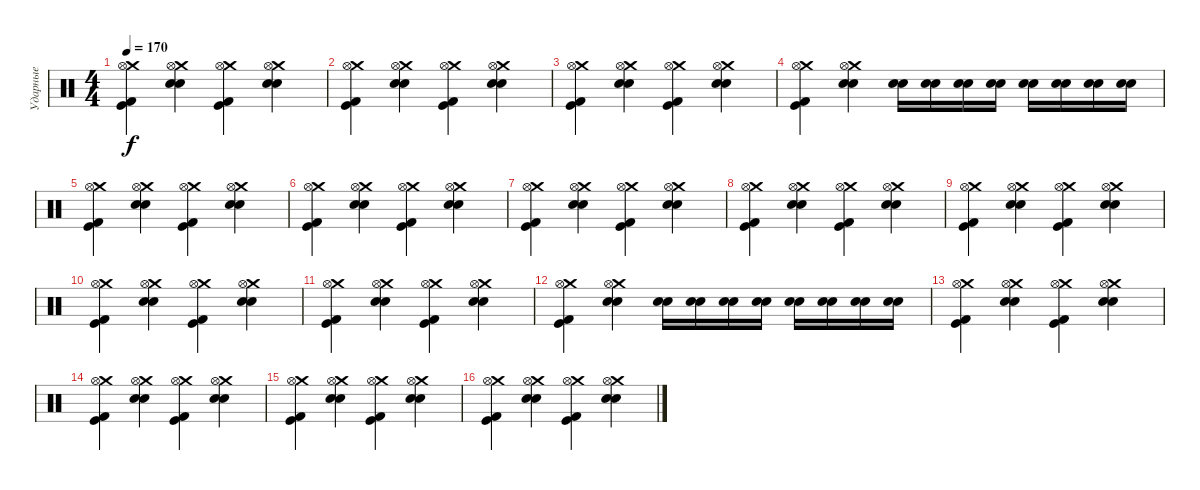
\track ("Ударные" "Ударные") {instrument percussion}
\staff {score}
\articulation defaults
\ts (4 4)
\tempo 170
\clef neutral
\ks c
("Crash medium (hit)" "Hi-Hat (open)" "Kick (hit)" "Kick (hit) 2").4{dy f} ("Crash medium (hit)" "Hi-Hat (open)" "Electric Snare (hit)" "Snare (hit) 2").4 ("Crash medium (hit)" "Hi-Hat (open)" "Kick (hit)" "Kick (hit) 2").4 ("Crash medium (hit)" "Hi-Hat (open)" "Electric Snare (hit)" "Snare (hit) 2").4 |
("Crash medium (hit)" "Hi-Hat (open)" "Kick (hit)" "Kick (hit) 2").4 ("Crash medium (hit)" "Hi-Hat (open)" "Electric Snare (hit)" "Snare (hit) 2").4 ("Crash medium (hit)" "Hi-Hat (open)" "Kick (hit)" "Kick (hit) 2").4 ("Crash medium (hit)" "Hi-Hat (open)" "Electric Snare (hit)" "Snare (hit) 2").4 |
("Crash medium (hit)" "Hi-Hat (open)" "Kick (hit)" "Kick (hit) 2").4 ("Crash medium (hit)" "Hi-Hat (open)" "Electric Snare (hit)" "Snare (hit) 2").4 ("Crash medium (hit)" "Hi-Hat (open)" "Kick (hit)" "Kick (hit) 2").4 ("Crash medium (hit)" "Hi-Hat (open)" "Electric Snare (hit)" "Snare (hit) 2").4 |
("Crash medium (hit)" "Hi-Hat (open)" "Kick (hit)" "Kick (hit) 2").4 ("Crash medium (hit)" "Hi-Hat (open)" "Electric Snare (hit)" "Snare (hit) 2").4 ("Snare (hit) 2" "Electric Snare (hit)").16 ("Snare (hit) 2" "Electric Snare (hit)").16 ("Snare (hit) 2" "Electric Snare (hit)").16 ("Snare (hit) 2" "Electric Snare (hit)").16 ("Snare (hit) 2" "Electric Snare (hit)").16 ("Snare (hit) 2" "Electric Snare (hit)").16 ("Snare (hit) 2" "Electric Snare (hit)").16 ("Snare (hit) 2" "Electric Snare (hit)").16 |
("Crash medium (hit)" "Hi-Hat (open)" "Kick (hit)" "Kick (hit) 2").4 ("Crash medium (hit)" "Hi-Hat (open)" "Electric Snare (hit)" "Snare (hit) 2").4 ("Crash medium (hit)" "Hi-Hat (open)" "Kick (hit)" "Kick (hit) 2").4 ("Crash medium (hit)" "Hi-Hat (open)" "Electric Snare (hit)" "Snare (hit) 2").4 |
("Crash medium (hit)" "Hi-Hat (open)" "Kick (hit)" "Kick (hit) 2").4 ("Crash medium (hit)" "Hi-Hat (open)" "Electric Snare (hit)" "Snare (hit) 2").4 ("Crash medium (hit)" "Hi-Hat (open)" "Kick (hit)" "Kick (hit) 2").4 ("Crash medium (hit)" "Hi-Hat (open)" "Electric Snare (hit)" "Snare (hit) 2").4 |
("Crash medium (hit)" "Hi-Hat (open)" "Kick (hit)" "Kick (hit) 2").4 ("Crash medium (hit)" "Hi-Hat (open)" "Electric Snare (hit)" "Snare (hit) 2").4 ("Crash medium (hit)" "Hi-Hat (open)" "Kick (hit)" "Kick (hit) 2").4 ("Crash medium (hit)" "Hi-Hat (open)" "Electric Snare (hit)" "Snare (hit) 2").4 |
("Crash medium (hit)" "Hi-Hat (open)" "Kick (hit)" "Kick (hit) 2").4 ("Crash medium (hit)" "Hi-Hat (open)" "Electric Snare (hit)" "Snare (hit) 2").4 ("Crash medium (hit)" "Hi-Hat (open)" "Kick (hit)" "Kick (hit) 2").4 ("Crash medium (hit)" "Hi-Hat (open)" "Electric Snare (hit)" "Snare (hit) 2").4 |
("Crash medium (hit)" "Hi-Hat (open)" "Kick (hit)" "Kick (hit) 2").4 ("Crash medium (hit)" "Hi-Hat (open)" "Electric Snare (hit)" "Snare (hit) 2").4 ("Crash medium (hit)" "Hi-Hat (open)" "Kick (hit)" "Kick (hit) 2").4 ("Crash medium (hit)" "Hi-Hat (open)" "Electric Snare (hit)" "Snare (hit) 2").4 |
("Crash medium (hit)" "Hi-Hat (open)" "Kick (hit)" "Kick (hit) 2").4 ("Crash medium (hit)" "Hi-Hat (open)" "Electric Snare (hit)" "Snare (hit) 2").4 ("Crash medium (hit)" "Hi-Hat (open)" "Kick (hit)" "Kick (hit) 2").4 ("Crash medium (hit)" "Hi-Hat (open)" "Electric Snare (hit)" "Snare (hit) 2").4 |
("Crash medium (hit)" "Hi-Hat (open)" "Kick (hit)" "Kick (hit) 2").4 ("Crash medium (hit)" "Hi-Hat (open)" "Electric Snare (hit)" "Snare (hit) 2").4 ("Crash medium (hit)" "Hi-Hat (open)" "Kick (hit)" "Kick (hit) 2").4 ("Crash medium (hit)" "Hi-Hat (open)" "Electric Snare (hit)" "Snare (hit) 2").4 |
("Crash medium (hit)" "Hi-Hat (open)" "Kick (hit)" "Kick (hit) 2").4 ("Crash medium (hit)" "Hi-Hat (open)" "Electric Snare (hit)" "Snare (hit) 2").4 ("Snare (hit) 2" "Electric Snare (hit)").16 ("Snare (hit) 2" "Electric Snare (hit)").16 ("Snare (hit) 2" "Electric Snare (hit)").16 ("Snare (hit) 2" "Electric Snare (hit)").16 ("Snare (hit) 2" "Electric Snare (hit)").16 ("Snare (hit) 2" "Electric Snare (hit)").16 ("Snare (hit) 2" "Electric Snare (hit)").16 ("Snare (hit) 2" "Electric Snare (hit)").16 |
("Crash medium (hit)" "Hi-Hat (open)" "Kick (hit)" "Kick (hit) 2").4 ("Crash medium (hit)" "Hi-Hat (open)" "Electric Snare (hit)" "Snare (hit) 2").4 ("Crash medium (hit)" "Hi-Hat (open)" "Kick (hit)" "Kick (hit) 2").4 ("Crash medium (hit)" "Hi-Hat (open)" "Electric Snare (hit)" "Snare (hit) 2").4 |
("Crash medium (hit)" "Hi-Hat (open)" "Kick (hit)" "Kick (hit) 2").4 ("Crash medium (hit)" "Hi-Hat (open)" "Electric Snare (hit)" "Snare (hit) 2").4 ("Crash medium (hit)" "Hi-Hat (open)" "Kick (hit)" "Kick (hit) 2").4 ("Crash medium (hit)" "Hi-Hat (open)" "Electric Snare (hit)" "Snare (hit) 2").4 |
("Crash medium (hit)" "Hi-Hat (open)" "Kick (hit)" "Kick (hit) 2").4 ("Crash medium (hit)" "Hi-Hat (open)" "Electric Snare (hit)" "Snare (hit) 2").4 ("Crash medium (hit)" "Hi-Hat (open)" "Kick (hit)" "Kick (hit) 2").4 ("Crash medium (hit)" "Hi-Hat (open)" "Electric Snare (hit)" "Snare (hit) 2").4 |
("Crash medium (hit)" "Hi-Hat (open)" "Kick (hit)" "Kick (hit) 2").4 ("Crash medium (hit)" "Hi-Hat (open)" "Electric Snare (hit)" "Snare (hit) 2").4 ("Crash medium (hit)" "Hi-Hat (open)" "Kick (hit)" "Kick (hit) 2").4 ("Crash medium (hit)" "Hi-Hat (open)" "Electric Snare (hit)" "Snare (hit) 2").4
